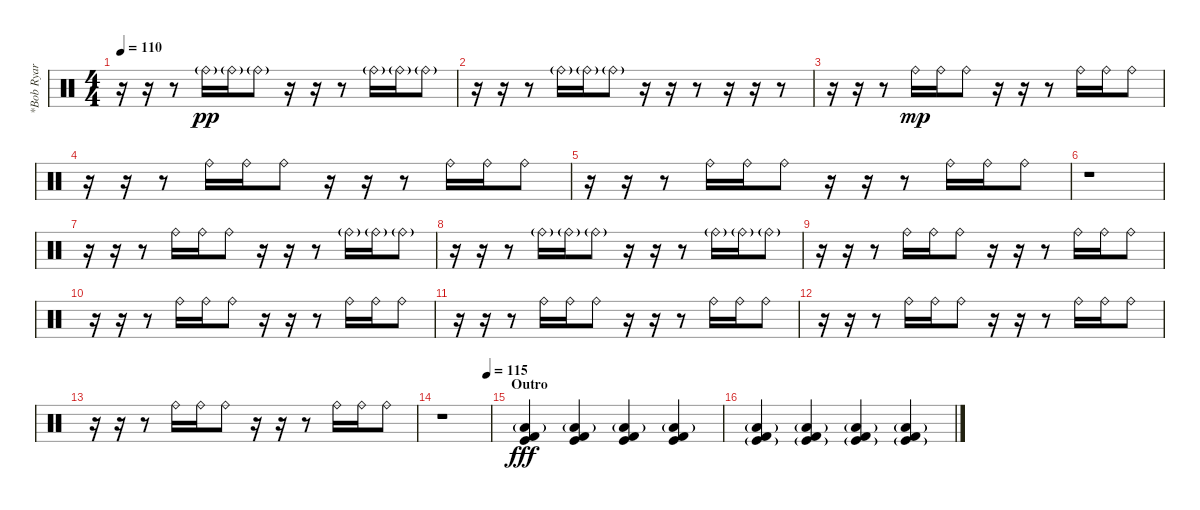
\track ("*Bob Ryar (Drums)" "*Bob Ryar ") {instrument percussion}
\staff {score}
\articulation defaults
\ts (4 4)
\tempo 110
\clef neutral
\ks c
r.16{dy pp} r.16 r.8 "Ride (bell)"{g}.16 "Ride (bell)"{g}.16 "Ride (bell)"{g}.8 r.16 r.16 r.8 "Ride (bell)"{g}.16 "Ride (bell)"{g}.16 "Ride (bell)"{g}.8 |
r.16 r.16 r.8 "Ride (bell)"{g}.16 "Ride (bell)"{g}.16 "Ride (bell)"{g}.8 r.16 r.16 r.8 r.16 r.16 r.8 |
r.16 r.16 r.8 "Ride (bell)".16{dy mp} "Ride (bell)".16 "Ride (bell)".8 r.16 r.16 r.8 "Ride (bell)".16 "Ride (bell)".16 "Ride (bell)".8 |
r.16 r.16 r.8 "Ride (bell)".16 "Ride (bell)".16 "Ride (bell)".8 r.16 r.16 r.8 "Ride (bell)".16 "Ride (bell)".16 "Ride (bell)".8 |
r.16 r.16 r.8 "Ride (bell)".16 "Ride (bell)".16 "Ride (bell)".8 r.16 r.16 r.8 "Ride (bell)".16 "Ride (bell)".16 "Ride (bell)".8 |
r.1 |
r.16 r.16 r.8 "Ride (bell)".16 "Ride (bell)".16 "Ride (bell)".8 r.16 r.16 r.8 "Ride (bell)"{g}.16 "Ride (bell)"{g}.16 "Ride (bell)"{g}.8 |
r.16 r.16 r.8 "Ride (bell)"{g}.16 "Ride (bell)"{g}.16 "Ride (bell)"{g}.8 r.16 r.16 r.8 "Ride (bell)"{g}.16 "Ride (bell)"{g}.16 "Ride (bell)"{g}.8 |
r.16 r.16 r.8 "Ride (bell)".16 "Ride (bell)".16 "Ride (bell)".8 r.16 r.16 r.8 "Ride (bell)".16 "Ride (bell)".16 "Ride (bell)".8 |
r.16 r.16 r.8 "Ride (bell)".16 "Ride (bell)".16 "Ride (bell)".8 r.16 r.16 r.8 "Ride (bell)".16 "Ride (bell)".16 "Ride (bell)".8 |
r.16 r.16 r.8 "Ride (bell)".16 "Ride (bell)".16 "Ride (bell)".8 r.16 r.16 r.8 "Ride (bell)".16 "Ride (bell)".16 "Ride (bell)".8 |
r.16 r.16 r.8 "Ride (bell)".16 "Ride (bell)".16 "Ride (bell)".8 r.16 r.16 r.8 "Ride (bell)".16 "Ride (bell)".16 "Ride (bell)".8 |
r.16 r.16 r.8 "Ride (bell)".16 "Ride (bell)".16 "Ride (bell)".8 r.16 r.16 r.8 "Ride (bell)".16 "Ride (bell)".16 "Ride (bell)".8 |
\tempo (115 0.9375)
r.1 |
\section ("" "Outro")
("Low Floor Tom (hit)"{g} "Kick (hit)" "Kick (hit) 2").4{dy fff} ("Low Floor Tom (hit)"{g} "Kick (hit)" "Kick (hit) 2").4 ("Low Floor Tom (hit)"{g} "Kick (hit)" "Kick (hit) 2").4 ("Low Floor Tom (hit)"{g} "Kick (hit)" "Kick (hit) 2").4 |
("Low Floor Tom (hit)"{g} "Kick (hit)"{g} "Kick (hit) 2").4 ("Low Floor Tom (hit)"{g} "Kick (hit)"{g} "Kick (hit) 2").4 ("Low Floor Tom (hit)"{g} "Kick (hit)"{g} "Kick (hit) 2").4 ("Low Floor Tom (hit)"{g} "Kick (hit)"{g} "Kick (hit) 2").4
